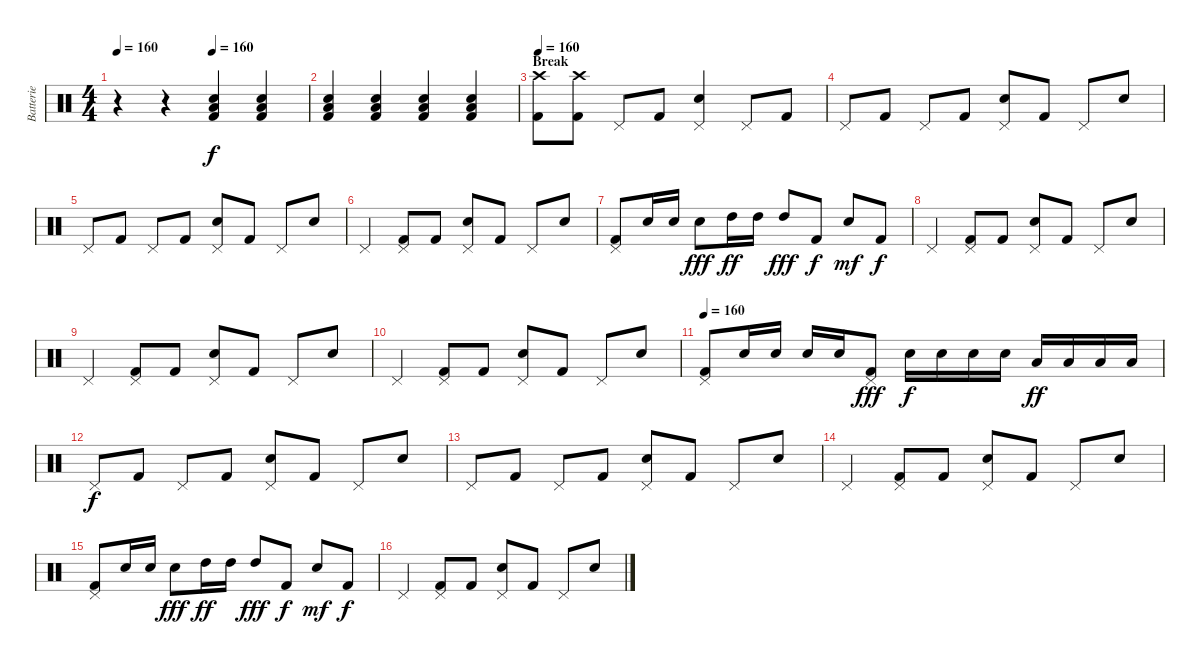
\track ("Batterie" "Batterie") {instrument percussion}
\staff {score}
\articulation defaults
\ts (4 4)
\tempo 160
\tempo (160 0.5)
\clef neutral
\ks c
r.4{dy f} r.4 ("Electric Snare (hit)" "Low Floor Tom (hit)" "Kick (hit) 2").4 ("Electric Snare (hit)" "Low Floor Tom (hit)" "Kick (hit) 2").4 |
("Electric Snare (hit)" "Low Floor Tom (hit)" "Kick (hit) 2").4 ("Electric Snare (hit)" "Low Floor Tom (hit)" "Kick (hit) 2").4 ("Electric Snare (hit)" "Low Floor Tom (hit)" "Kick (hit) 2").4 ("Electric Snare (hit)" "Low Floor Tom (hit)" "Kick (hit) 2").4 |
\section ("" "Break")
\tempo 160
("Crash high (hit)" "Kick (hit) 2").8 ("Crash high (hit)" "Kick (hit) 2").8 "Pedal Hi-Hat (hit)".8 "Kick (hit) 2".8 ("Pedal Hi-Hat (hit)" "Electric Snare (hit)").4 "Pedal Hi-Hat (hit)".8 "Kick (hit) 2".8 |
"Pedal Hi-Hat (hit)".8 "Kick (hit) 2".8 "Pedal Hi-Hat (hit)".8 "Kick (hit) 2".8 ("Pedal Hi-Hat (hit)" "Electric Snare (hit)").8 "Kick (hit) 2".8 "Pedal Hi-Hat (hit)".8 "Electric Snare (hit)".8 |
"Pedal Hi-Hat (hit)".8 "Kick (hit) 2".8 "Pedal Hi-Hat (hit)".8 "Kick (hit) 2".8 ("Pedal Hi-Hat (hit)" "Electric Snare (hit)").8 "Kick (hit) 2".8 "Pedal Hi-Hat (hit)".8 "Electric Snare (hit)".8 |
"Pedal Hi-Hat (hit)".4 ("Pedal Hi-Hat (hit)" "Kick (hit) 2").8 "Kick (hit) 2".8 ("Pedal Hi-Hat (hit)" "Electric Snare (hit)").8 "Kick (hit) 2".8 "Pedal Hi-Hat (hit)".8 "Electric Snare (hit)".8 |
("Pedal Hi-Hat (hit)" "Kick (hit) 2").8 "Electric Snare (hit)".16 "Electric Snare (hit)".16 "Electric Snare (hit)".8{dy fff} "High Tom (hit)".16{dy ff} "High Tom (hit)".16 "High Tom (hit)".8{dy fff} "Kick (hit) 2".8{dy f} "Electric Snare (hit)".8{dy mf} "Kick (hit) 2".8{dy f} |
"Pedal Hi-Hat (hit)".4 ("Pedal Hi-Hat (hit)" "Kick (hit) 2").8 "Kick (hit) 2".8 ("Pedal Hi-Hat (hit)" "Electric Snare (hit)").8 "Kick (hit) 2".8 "Pedal Hi-Hat (hit)".8 "Electric Snare (hit)".8 |
"Pedal Hi-Hat (hit)".4 ("Pedal Hi-Hat (hit)" "Kick (hit) 2").8 "Kick (hit) 2".8 ("Pedal Hi-Hat (hit)" "Electric Snare (hit)").8 "Kick (hit) 2".8 "Pedal Hi-Hat (hit)".8 "Electric Snare (hit)".8 |
"Pedal Hi-Hat (hit)".4 ("Pedal Hi-Hat (hit)" "Kick (hit) 2").8 "Kick (hit) 2".8 ("Pedal Hi-Hat (hit)" "Electric Snare (hit)").8 "Kick (hit) 2".8 "Pedal Hi-Hat (hit)".8 "Electric Snare (hit)".8 |
\tempo 160
("Pedal Hi-Hat (hit)" "Kick (hit) 2").8 "Electric Snare (hit)".16 "Electric Snare (hit)".16 "Electric Snare (hit)".16 "Electric Snare (hit)".16 ("Pedal Hi-Hat (hit)" "Kick (hit) 2").8{dy fff} "Electric Snare (hit)".16{dy f} "Electric Snare (hit)".16 "Electric Snare (hit)".16 "Electric Snare (hit)".16 "Low Floor Tom (hit)".16{dy ff} "Low Floor Tom (hit)".16 "Low Floor Tom (hit)".16 "Low Floor Tom (hit)".16 |
"Pedal Hi-Hat (hit)".8{dy f} "Kick (hit) 2".8 "Pedal Hi-Hat (hit)".8 "Kick (hit) 2".8 ("Pedal Hi-Hat (hit)" "Electric Snare (hit)").8 "Kick (hit) 2".8 "Pedal Hi-Hat (hit)".8 "Electric Snare (hit)".8 |
"Pedal Hi-Hat (hit)".8 "Kick (hit) 2".8 "Pedal Hi-Hat (hit)".8 "Kick (hit) 2".8 ("Pedal Hi-Hat (hit)" "Electric Snare (hit)").8 "Kick (hit) 2".8 "Pedal Hi-Hat (hit)".8 "Electric Snare (hit)".8 |
"Pedal Hi-Hat (hit)".4 ("Pedal Hi-Hat (hit)" "Kick (hit) 2").8 "Kick (hit) 2".8 ("Pedal Hi-Hat (hit)" "Electric Snare (hit)").8 "Kick (hit) 2".8 "Pedal Hi-Hat (hit)".8 "Electric Snare (hit)".8 |
("Pedal Hi-Hat (hit)" "Kick (hit) 2").8 "Electric Snare (hit)".16 "Electric Snare (hit)".16 "Electric Snare (hit)".8{dy fff} "High Tom (hit)".16{dy ff} "High Tom (hit)".16 "High Tom (hit)".8{dy fff} "Kick (hit) 2".8{dy f} "Electric Snare (hit)".8{dy mf} "Kick (hit) 2".8{dy f} |
"Pedal Hi-Hat (hit)".4 ("Pedal Hi-Hat (hit)" "Kick (hit) 2").8 "Kick (hit) 2".8 ("Pedal Hi-Hat (hit)" "Electric Snare (hit)").8 "Kick (hit) 2".8 "Pedal Hi-Hat (hit)".8 "Electric Snare (hit)".8
